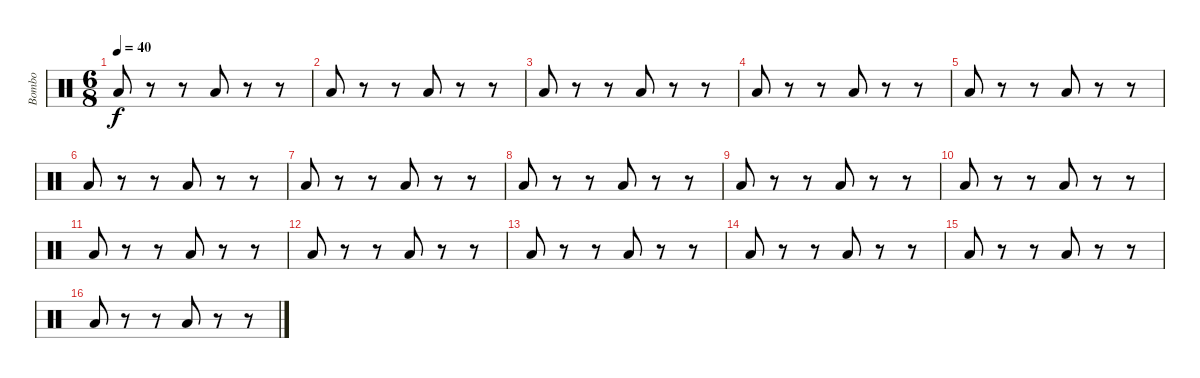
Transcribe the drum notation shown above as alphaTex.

\track ("Bombo" "Bombo") {instrument percussion}
\staff {score}
\articulation defaults
\ts (6 8)
\tempo 40
\clef neutral
\ks c "Low Floor Tom (hit)".8{dy f}
r.8 r.8 "Low Floor Tom (hit)".8 r.8 r.8 |
"Low Floor Tom (hit)".8 r.8 r.8 "Low Floor Tom (hit)".8 r.8 r.8 |
"Low Floor Tom (hit)".8 r.8 r.8 "Low Floor Tom (hit)".8 r.8 r.8 |
"Low Floor Tom (hit)".8 r.8 r.8 "Low Floor Tom (hit)".8 r.8 r.8 |
"Low Floor Tom (hit)".8 r.8 r.8 "Low Floor Tom (hit)".8 r.8 r.8 |
"Low Floor Tom (hit)".8 r.8 r.8 "Low Floor Tom (hit)".8 r.8 r.8 |
"Low Floor Tom (hit)".8 r.8 r.8 "Low Floor Tom (hit)".8 r.8 r.8 |
"Low Floor Tom (hit)".8 r.8 r.8 "Low Floor Tom (hit)".8 r.8 r.8 |
"Low Floor Tom (hit)".8 r.8 r.8 "Low Floor Tom (hit)".8 r.8 r.8 |
"Low Floor Tom (hit)".8 r.8 r.8 "Low Floor Tom (hit)".8 r.8 r.8 |
"Low Floor Tom (hit)".8 r.8 r.8 "Low Floor Tom (hit)".8 r.8 r.8 |
"Low Floor Tom (hit)".8 r.8 r.8 "Low Floor Tom (hit)".8 r.8 r.8 |
"Low Floor Tom (hit)".8 r.8 r.8 "Low Floor Tom (hit)".8 r.8 r.8 |
"Low Floor Tom (hit)".8 r.8 r.8 "Low Floor Tom (hit)".8 r.8 r.8 |
"Low Floor Tom (hit)".8 r.8 r.8 "Low Floor Tom (hit)".8 r.8 r.8 |
"Low Floor Tom (hit)".8 r.8 r.8 "Low Floor Tom (hit)".8 r.8 r.8
